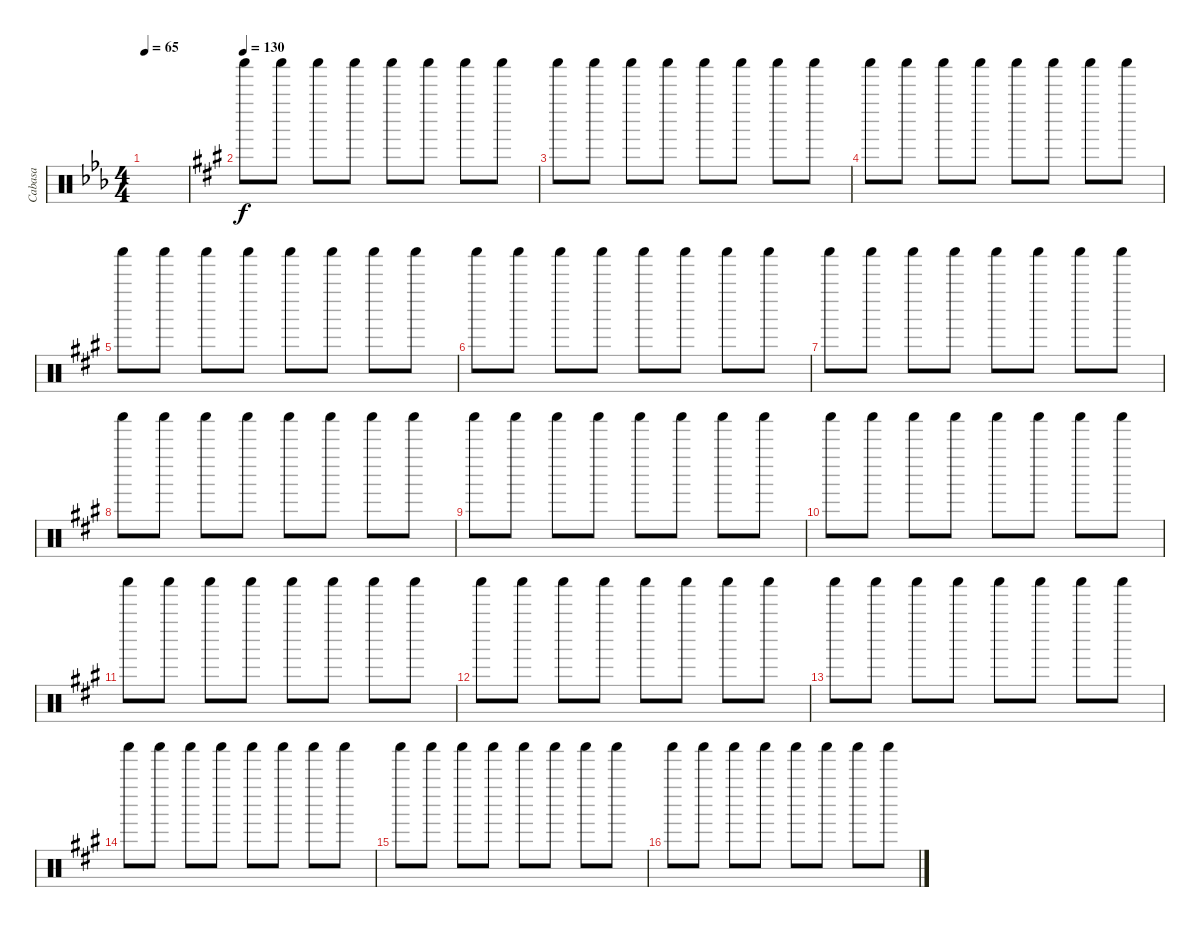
\track ("Cabasa" "Cabasa") {instrument percussion}
\staff {score}
\articulation defaults
\ts (4 4)
\tempo 65
\clef neutral
\ks eb
|
\tempo 130
\ks a "Shaker (hit)".8{volume 3} "Shaker (hit)".8 "Shaker (hit)".8 "Shaker (hit)".8 "Shaker (hit)".8 "Shaker (hit)".8 "Shaker (hit)".8 "Shaker (hit)".8
|
"Shaker (hit)".8 "Shaker (hit)".8 "Shaker (hit)".8 "Shaker (hit)".8 "Shaker (hit)".8 "Shaker (hit)".8 "Shaker (hit)".8 "Shaker (hit)".8 |
"Shaker (hit)".8 "Shaker (hit)".8 "Shaker (hit)".8 "Shaker (hit)".8 "Shaker (hit)".8 "Shaker (hit)".8 "Shaker (hit)".8 "Shaker (hit)".8 |
"Shaker (hit)".8 "Shaker (hit)".8 "Shaker (hit)".8 "Shaker (hit)".8 "Shaker (hit)".8 "Shaker (hit)".8 "Shaker (hit)".8 "Shaker (hit)".8 |
"Shaker (hit)".8 "Shaker (hit)".8 "Shaker (hit)".8 "Shaker (hit)".8 "Shaker (hit)".8 "Shaker (hit)".8 "Shaker (hit)".8 "Shaker (hit)".8 |
"Shaker (hit)".8 "Shaker (hit)".8 "Shaker (hit)".8 "Shaker (hit)".8 "Shaker (hit)".8 "Shaker (hit)".8 "Shaker (hit)".8 "Shaker (hit)".8 |
"Shaker (hit)".8 "Shaker (hit)".8 "Shaker (hit)".8 "Shaker (hit)".8 "Shaker (hit)".8 "Shaker (hit)".8 "Shaker (hit)".8 "Shaker (hit)".8 |
"Shaker (hit)".8 "Shaker (hit)".8 "Shaker (hit)".8 "Shaker (hit)".8 "Shaker (hit)".8 "Shaker (hit)".8 "Shaker (hit)".8 "Shaker (hit)".8 |
"Shaker (hit)".8 "Shaker (hit)".8 "Shaker (hit)".8 "Shaker (hit)".8 "Shaker (hit)".8 "Shaker (hit)".8 "Shaker (hit)".8 "Shaker (hit)".8 |
"Shaker (hit)".8 "Shaker (hit)".8 "Shaker (hit)".8 "Shaker (hit)".8 "Shaker (hit)".8 "Shaker (hit)".8 "Shaker (hit)".8 "Shaker (hit)".8 |
"Shaker (hit)".8 "Shaker (hit)".8 "Shaker (hit)".8 "Shaker (hit)".8 "Shaker (hit)".8 "Shaker (hit)".8 "Shaker (hit)".8 "Shaker (hit)".8 |
"Shaker (hit)".8 "Shaker (hit)".8 "Shaker (hit)".8 "Shaker (hit)".8 "Shaker (hit)".8 "Shaker (hit)".8 "Shaker (hit)".8 "Shaker (hit)".8 |
"Shaker (hit)".8 "Shaker (hit)".8 "Shaker (hit)".8 "Shaker (hit)".8 "Shaker (hit)".8 "Shaker (hit)".8 "Shaker (hit)".8 "Shaker (hit)".8 |
"Shaker (hit)".8 "Shaker (hit)".8 "Shaker (hit)".8 "Shaker (hit)".8 "Shaker (hit)".8 "Shaker (hit)".8 "Shaker (hit)".8 "Shaker (hit)".8 |
"Shaker (hit)".8 "Shaker (hit)".8 "Shaker (hit)".8 "Shaker (hit)".8 "Shaker (hit)".8 "Shaker (hit)".8 "Shaker (hit)".8 "Shaker (hit)".8
